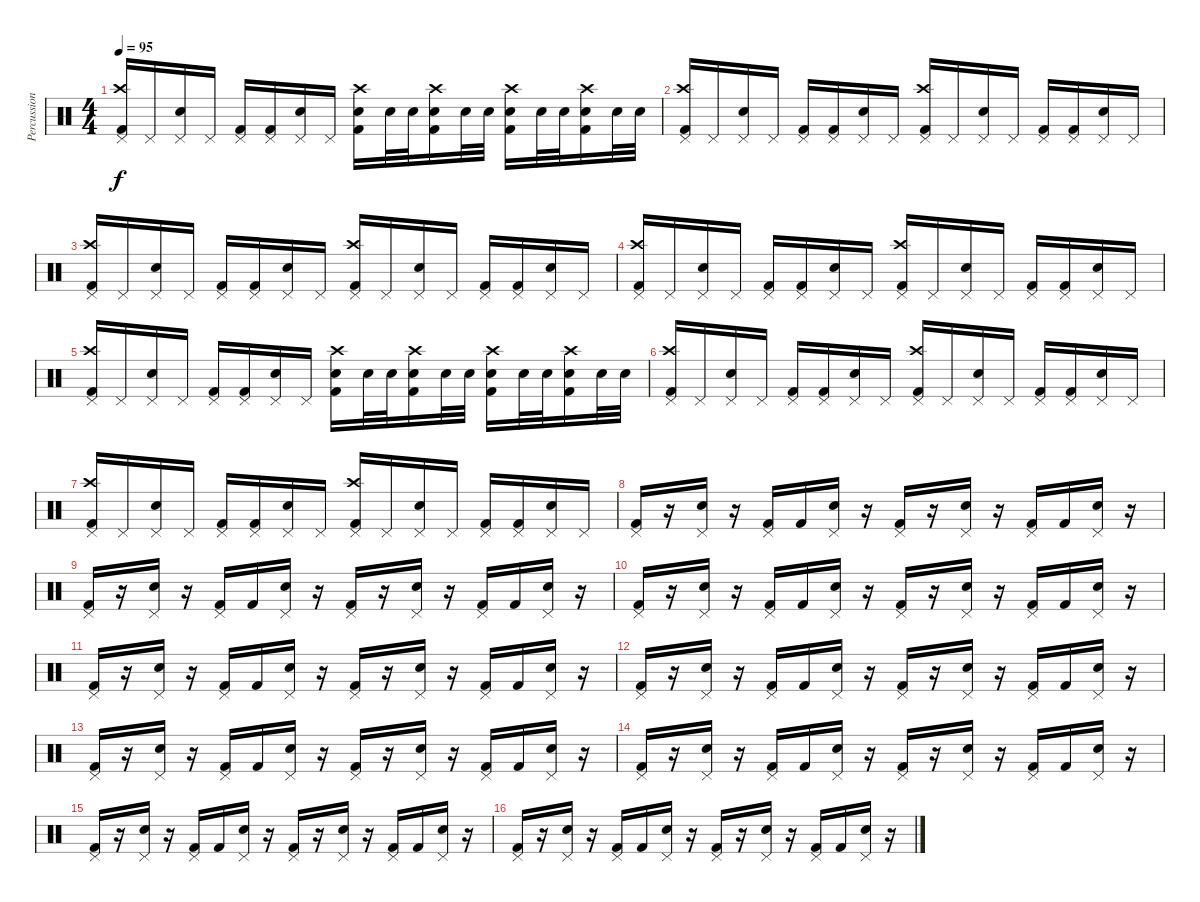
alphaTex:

\track ("Percussion" "Percussion") {instrument percussion}
\staff {score}
\articulation defaults
\ts (4 4)
\tempo 95
\clef neutral
\ks c
("Pedal Hi-Hat (hit)" "Crash high (hit)" "Kick (hit) 2").16{dy f} "Pedal Hi-Hat (hit)".16 ("Pedal Hi-Hat (hit)" "Snare (hit) 2").16 "Pedal Hi-Hat (hit)".16 ("Pedal Hi-Hat (hit)" "Kick (hit) 2").16 ("Pedal Hi-Hat (hit)" "Kick (hit) 2").16 ("Pedal Hi-Hat (hit)" "Snare (hit) 2").16 "Pedal Hi-Hat (hit)".16 ("Kick (hit) 2" "Crash high (hit)" "Snare (hit) 2").16 "Snare (hit) 2".32 "Snare (hit) 2".32 ("Kick (hit) 2" "Crash high (hit)" "Snare (hit) 2").16 "Snare (hit) 2".32 "Snare (hit) 2".32 ("Kick (hit) 2" "Crash high (hit)" "Snare (hit) 2").16 "Snare (hit) 2".32 "Snare (hit) 2".32 ("Kick (hit) 2" "Crash high (hit)" "Snare (hit) 2").16 "Snare (hit) 2".32 "Snare (hit) 2".32 |
("Pedal Hi-Hat (hit)" "Crash high (hit)" "Kick (hit) 2").16 "Pedal Hi-Hat (hit)".16 ("Pedal Hi-Hat (hit)" "Snare (hit) 2").16 "Pedal Hi-Hat (hit)".16 ("Pedal Hi-Hat (hit)" "Kick (hit) 2").16 ("Pedal Hi-Hat (hit)" "Kick (hit) 2").16 ("Pedal Hi-Hat (hit)" "Snare (hit) 2").16 "Pedal Hi-Hat (hit)".16 ("Pedal Hi-Hat (hit)" "Crash high (hit)" "Kick (hit) 2").16 "Pedal Hi-Hat (hit)".16 ("Pedal Hi-Hat (hit)" "Snare (hit) 2").16 "Pedal Hi-Hat (hit)".16 ("Pedal Hi-Hat (hit)" "Kick (hit) 2").16 ("Pedal Hi-Hat (hit)" "Kick (hit) 2").16 ("Pedal Hi-Hat (hit)" "Snare (hit) 2").16 "Pedal Hi-Hat (hit)".16 |
("Pedal Hi-Hat (hit)" "Crash high (hit)" "Kick (hit) 2").16 "Pedal Hi-Hat (hit)".16 ("Pedal Hi-Hat (hit)" "Snare (hit) 2").16 "Pedal Hi-Hat (hit)".16 ("Pedal Hi-Hat (hit)" "Kick (hit) 2").16 ("Pedal Hi-Hat (hit)" "Kick (hit) 2").16 ("Pedal Hi-Hat (hit)" "Snare (hit) 2").16 "Pedal Hi-Hat (hit)".16 ("Pedal Hi-Hat (hit)" "Crash high (hit)" "Kick (hit) 2").16 "Pedal Hi-Hat (hit)".16 ("Pedal Hi-Hat (hit)" "Snare (hit) 2").16 "Pedal Hi-Hat (hit)".16 ("Pedal Hi-Hat (hit)" "Kick (hit) 2").16 ("Pedal Hi-Hat (hit)" "Kick (hit) 2").16 ("Pedal Hi-Hat (hit)" "Snare (hit) 2").16 "Pedal Hi-Hat (hit)".16 |
("Pedal Hi-Hat (hit)" "Crash high (hit)" "Kick (hit) 2").16 "Pedal Hi-Hat (hit)".16 ("Pedal Hi-Hat (hit)" "Snare (hit) 2").16 "Pedal Hi-Hat (hit)".16 ("Pedal Hi-Hat (hit)" "Kick (hit) 2").16 ("Pedal Hi-Hat (hit)" "Kick (hit) 2").16 ("Pedal Hi-Hat (hit)" "Snare (hit) 2").16 "Pedal Hi-Hat (hit)".16 ("Pedal Hi-Hat (hit)" "Crash high (hit)" "Kick (hit) 2").16 "Pedal Hi-Hat (hit)".16 ("Pedal Hi-Hat (hit)" "Snare (hit) 2").16 "Pedal Hi-Hat (hit)".16 ("Pedal Hi-Hat (hit)" "Kick (hit) 2").16 ("Pedal Hi-Hat (hit)" "Kick (hit) 2").16 ("Pedal Hi-Hat (hit)" "Snare (hit) 2").16 "Pedal Hi-Hat (hit)".16 |
("Pedal Hi-Hat (hit)" "Crash high (hit)" "Kick (hit) 2").16 "Pedal Hi-Hat (hit)".16 ("Pedal Hi-Hat (hit)" "Snare (hit) 2").16 "Pedal Hi-Hat (hit)".16 ("Pedal Hi-Hat (hit)" "Kick (hit) 2").16 ("Pedal Hi-Hat (hit)" "Kick (hit) 2").16 ("Pedal Hi-Hat (hit)" "Snare (hit) 2").16 "Pedal Hi-Hat (hit)".16 ("Kick (hit) 2" "Crash high (hit)" "Snare (hit) 2").16 "Snare (hit) 2".32 "Snare (hit) 2".32 ("Kick (hit) 2" "Crash high (hit)" "Snare (hit) 2").16 "Snare (hit) 2".32 "Snare (hit) 2".32 ("Kick (hit) 2" "Crash high (hit)" "Snare (hit) 2").16 "Snare (hit) 2".32 "Snare (hit) 2".32 ("Kick (hit) 2" "Crash high (hit)" "Snare (hit) 2").16 "Snare (hit) 2".32 "Snare (hit) 2".32 |
("Pedal Hi-Hat (hit)" "Crash high (hit)" "Kick (hit) 2").16 "Pedal Hi-Hat (hit)".16 ("Pedal Hi-Hat (hit)" "Snare (hit) 2").16 "Pedal Hi-Hat (hit)".16 ("Pedal Hi-Hat (hit)" "Kick (hit) 2").16 ("Pedal Hi-Hat (hit)" "Kick (hit) 2").16 ("Pedal Hi-Hat (hit)" "Snare (hit) 2").16 "Pedal Hi-Hat (hit)".16 ("Pedal Hi-Hat (hit)" "Crash high (hit)" "Kick (hit) 2").16 "Pedal Hi-Hat (hit)".16 ("Pedal Hi-Hat (hit)" "Snare (hit) 2").16 "Pedal Hi-Hat (hit)".16 ("Pedal Hi-Hat (hit)" "Kick (hit) 2").16 ("Pedal Hi-Hat (hit)" "Kick (hit) 2").16 ("Pedal Hi-Hat (hit)" "Snare (hit) 2").16 "Pedal Hi-Hat (hit)".16 |
("Pedal Hi-Hat (hit)" "Crash high (hit)" "Kick (hit) 2").16 "Pedal Hi-Hat (hit)".16 ("Pedal Hi-Hat (hit)" "Snare (hit) 2").16 "Pedal Hi-Hat (hit)".16 ("Pedal Hi-Hat (hit)" "Kick (hit) 2").16 ("Pedal Hi-Hat (hit)" "Kick (hit) 2").16 ("Pedal Hi-Hat (hit)" "Snare (hit) 2").16 "Pedal Hi-Hat (hit)".16 ("Pedal Hi-Hat (hit)" "Crash high (hit)" "Kick (hit) 2").16 "Pedal Hi-Hat (hit)".16 ("Pedal Hi-Hat (hit)" "Snare (hit) 2").16 "Pedal Hi-Hat (hit)".16 ("Pedal Hi-Hat (hit)" "Kick (hit) 2").16 ("Pedal Hi-Hat (hit)" "Kick (hit) 2").16 ("Pedal Hi-Hat (hit)" "Snare (hit) 2").16 "Pedal Hi-Hat (hit)".16 |
("Pedal Hi-Hat (hit)" "Kick (hit) 2").16 r.16 ("Pedal Hi-Hat (hit)" "Snare (hit) 2").16 r.16 ("Pedal Hi-Hat (hit)" "Kick (hit) 2").16 "Kick (hit) 2".16 ("Pedal Hi-Hat (hit)" "Snare (hit) 2").16 r.16 ("Pedal Hi-Hat (hit)" "Kick (hit) 2").16 r.16 ("Pedal Hi-Hat (hit)" "Snare (hit) 2").16 r.16 ("Pedal Hi-Hat (hit)" "Kick (hit) 2").16 "Kick (hit) 2".16 ("Pedal Hi-Hat (hit)" "Snare (hit) 2").16 r.16 |
("Pedal Hi-Hat (hit)" "Kick (hit) 2").16 r.16 ("Pedal Hi-Hat (hit)" "Snare (hit) 2").16 r.16 ("Pedal Hi-Hat (hit)" "Kick (hit) 2").16 "Kick (hit) 2".16 ("Pedal Hi-Hat (hit)" "Snare (hit) 2").16 r.16 ("Pedal Hi-Hat (hit)" "Kick (hit) 2").16 r.16 ("Pedal Hi-Hat (hit)" "Snare (hit) 2").16 r.16 ("Pedal Hi-Hat (hit)" "Kick (hit) 2").16 "Kick (hit) 2".16 ("Pedal Hi-Hat (hit)" "Snare (hit) 2").16 r.16 |
("Pedal Hi-Hat (hit)" "Kick (hit) 2").16 r.16 ("Pedal Hi-Hat (hit)" "Snare (hit) 2").16 r.16 ("Pedal Hi-Hat (hit)" "Kick (hit) 2").16 "Kick (hit) 2".16 ("Pedal Hi-Hat (hit)" "Snare (hit) 2").16 r.16 ("Pedal Hi-Hat (hit)" "Kick (hit) 2").16 r.16 ("Pedal Hi-Hat (hit)" "Snare (hit) 2").16 r.16 ("Pedal Hi-Hat (hit)" "Kick (hit) 2").16 "Kick (hit) 2".16 ("Pedal Hi-Hat (hit)" "Snare (hit) 2").16 r.16 |
("Pedal Hi-Hat (hit)" "Kick (hit) 2").16 r.16 ("Pedal Hi-Hat (hit)" "Snare (hit) 2").16 r.16 ("Pedal Hi-Hat (hit)" "Kick (hit) 2").16 "Kick (hit) 2".16 ("Pedal Hi-Hat (hit)" "Snare (hit) 2").16 r.16 ("Pedal Hi-Hat (hit)" "Kick (hit) 2").16 r.16 ("Pedal Hi-Hat (hit)" "Snare (hit) 2").16 r.16 ("Pedal Hi-Hat (hit)" "Kick (hit) 2").16 "Kick (hit) 2".16 ("Pedal Hi-Hat (hit)" "Snare (hit) 2").16 r.16 |
("Pedal Hi-Hat (hit)" "Kick (hit) 2").16 r.16 ("Pedal Hi-Hat (hit)" "Snare (hit) 2").16 r.16 ("Pedal Hi-Hat (hit)" "Kick (hit) 2").16 "Kick (hit) 2".16 ("Pedal Hi-Hat (hit)" "Snare (hit) 2").16 r.16 ("Pedal Hi-Hat (hit)" "Kick (hit) 2").16 r.16 ("Pedal Hi-Hat (hit)" "Snare (hit) 2").16 r.16 ("Pedal Hi-Hat (hit)" "Kick (hit) 2").16 "Kick (hit) 2".16 ("Pedal Hi-Hat (hit)" "Snare (hit) 2").16 r.16 |
("Pedal Hi-Hat (hit)" "Kick (hit) 2").16 r.16 ("Pedal Hi-Hat (hit)" "Snare (hit) 2").16 r.16 ("Pedal Hi-Hat (hit)" "Kick (hit) 2").16 "Kick (hit) 2".16 ("Pedal Hi-Hat (hit)" "Snare (hit) 2").16 r.16 ("Pedal Hi-Hat (hit)" "Kick (hit) 2").16 r.16 ("Pedal Hi-Hat (hit)" "Snare (hit) 2").16 r.16 ("Pedal Hi-Hat (hit)" "Kick (hit) 2").16 "Kick (hit) 2".16 ("Pedal Hi-Hat (hit)" "Snare (hit) 2").16 r.16 |
("Pedal Hi-Hat (hit)" "Kick (hit) 2").16 r.16 ("Pedal Hi-Hat (hit)" "Snare (hit) 2").16 r.16 ("Pedal Hi-Hat (hit)" "Kick (hit) 2").16 "Kick (hit) 2".16 ("Pedal Hi-Hat (hit)" "Snare (hit) 2").16 r.16 ("Pedal Hi-Hat (hit)" "Kick (hit) 2").16 r.16 ("Pedal Hi-Hat (hit)" "Snare (hit) 2").16 r.16 ("Pedal Hi-Hat (hit)" "Kick (hit) 2").16 "Kick (hit) 2".16 ("Pedal Hi-Hat (hit)" "Snare (hit) 2").16 r.16 |
("Pedal Hi-Hat (hit)" "Kick (hit) 2").16 r.16 ("Pedal Hi-Hat (hit)" "Snare (hit) 2").16 r.16 ("Pedal Hi-Hat (hit)" "Kick (hit) 2").16 "Kick (hit) 2".16 ("Pedal Hi-Hat (hit)" "Snare (hit) 2").16 r.16 ("Pedal Hi-Hat (hit)" "Kick (hit) 2").16 r.16 ("Pedal Hi-Hat (hit)" "Snare (hit) 2").16 r.16 ("Pedal Hi-Hat (hit)" "Kick (hit) 2").16 "Kick (hit) 2".16 ("Pedal Hi-Hat (hit)" "Snare (hit) 2").16 r.16 |
("Pedal Hi-Hat (hit)" "Kick (hit) 2").16 r.16 ("Pedal Hi-Hat (hit)" "Snare (hit) 2").16 r.16 ("Pedal Hi-Hat (hit)" "Kick (hit) 2").16 "Kick (hit) 2".16 ("Pedal Hi-Hat (hit)" "Snare (hit) 2").16 r.16 ("Pedal Hi-Hat (hit)" "Kick (hit) 2").16 r.16 ("Pedal Hi-Hat (hit)" "Snare (hit) 2").16 r.16 ("Pedal Hi-Hat (hit)" "Kick (hit) 2").16 "Kick (hit) 2".16 ("Pedal Hi-Hat (hit)" "Snare (hit) 2").16 r.16
